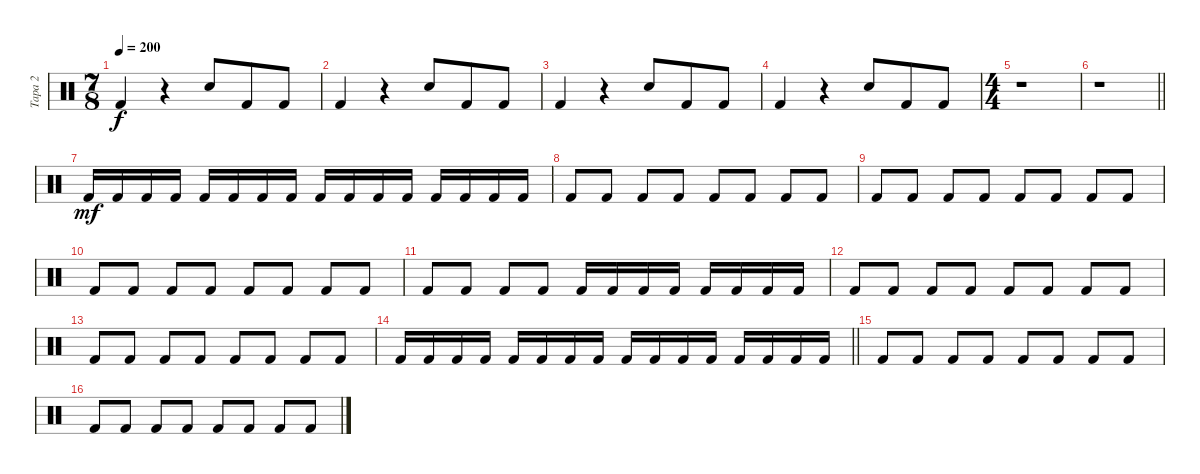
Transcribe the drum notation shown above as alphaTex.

\track ("Tapa 2" "Tapa 2") {instrument percussion}
\staff {score}
\articulation defaults
\ts (7 8)
\tempo 200
\clef neutral
\ks c "Kick (hit) 2".4{dy f}
r.4 "Snare (hit) 2".8 "Kick (hit) 2".8 "Kick (hit) 2".8 |
"Kick (hit) 2".4 r.4 "Snare (hit) 2".8 "Kick (hit) 2".8 "Kick (hit) 2".8 |
"Kick (hit) 2".4 r.4 "Snare (hit) 2".8 "Kick (hit) 2".8 "Kick (hit) 2".8 |
"Kick (hit) 2".4 r.4 "Snare (hit) 2".8 "Kick (hit) 2".8 "Kick (hit) 2".8 |
\ts (4 4)
r.1 |
\barLineRight lightlight
r.1 |
"Kick (hit) 2".16{dy mf} "Kick (hit) 2".16 "Kick (hit) 2".16 "Kick (hit) 2".16 "Kick (hit) 2".16 "Kick (hit) 2".16 "Kick (hit) 2".16 "Kick (hit) 2".16 "Kick (hit) 2".16 "Kick (hit) 2".16 "Kick (hit) 2".16 "Kick (hit) 2".16 "Kick (hit) 2".16 "Kick (hit) 2".16 "Kick (hit) 2".16 "Kick (hit) 2".16 |
"Kick (hit) 2".8 "Kick (hit) 2".8 "Kick (hit) 2".8 "Kick (hit) 2".8 "Kick (hit) 2".8 "Kick (hit) 2".8 "Kick (hit) 2".8 "Kick (hit) 2".8 |
"Kick (hit) 2".8 "Kick (hit) 2".8 "Kick (hit) 2".8 "Kick (hit) 2".8 "Kick (hit) 2".8 "Kick (hit) 2".8 "Kick (hit) 2".8 "Kick (hit) 2".8 |
"Kick (hit) 2".8 "Kick (hit) 2".8 "Kick (hit) 2".8 "Kick (hit) 2".8 "Kick (hit) 2".8 "Kick (hit) 2".8 "Kick (hit) 2".8 "Kick (hit) 2".8 |
"Kick (hit) 2".8 "Kick (hit) 2".8 "Kick (hit) 2".8 "Kick (hit) 2".8 "Kick (hit) 2".16 "Kick (hit) 2".16 "Kick (hit) 2".16 "Kick (hit) 2".16 "Kick (hit) 2".16 "Kick (hit) 2".16 "Kick (hit) 2".16 "Kick (hit) 2".16 |
"Kick (hit) 2".8 "Kick (hit) 2".8 "Kick (hit) 2".8 "Kick (hit) 2".8 "Kick (hit) 2".8 "Kick (hit) 2".8 "Kick (hit) 2".8 "Kick (hit) 2".8 |
"Kick (hit) 2".8 "Kick (hit) 2".8 "Kick (hit) 2".8 "Kick (hit) 2".8 "Kick (hit) 2".8 "Kick (hit) 2".8 "Kick (hit) 2".8 "Kick (hit) 2".8 |
\barLineRight lightlight "Kick (hit) 2".16 "Kick (hit) 2".16 "Kick (hit) 2".16 "Kick (hit) 2".16 "Kick (hit) 2".16 "Kick (hit) 2".16 "Kick (hit) 2".16 "Kick (hit) 2".16 "Kick (hit) 2".16 "Kick (hit) 2".16 "Kick (hit) 2".16 "Kick (hit) 2".16 "Kick (hit) 2".16 "Kick (hit) 2".16 "Kick (hit) 2".16 "Kick (hit) 2".16
|
"Kick (hit) 2".8 "Kick (hit) 2".8 "Kick (hit) 2".8 "Kick (hit) 2".8 "Kick (hit) 2".8 "Kick (hit) 2".8 "Kick (hit) 2".8 "Kick (hit) 2".8 |
"Kick (hit) 2".8 "Kick (hit) 2".8 "Kick (hit) 2".8 "Kick (hit) 2".8 "Kick (hit) 2".8 "Kick (hit) 2".8 "Kick (hit) 2".8 "Kick (hit) 2".8
